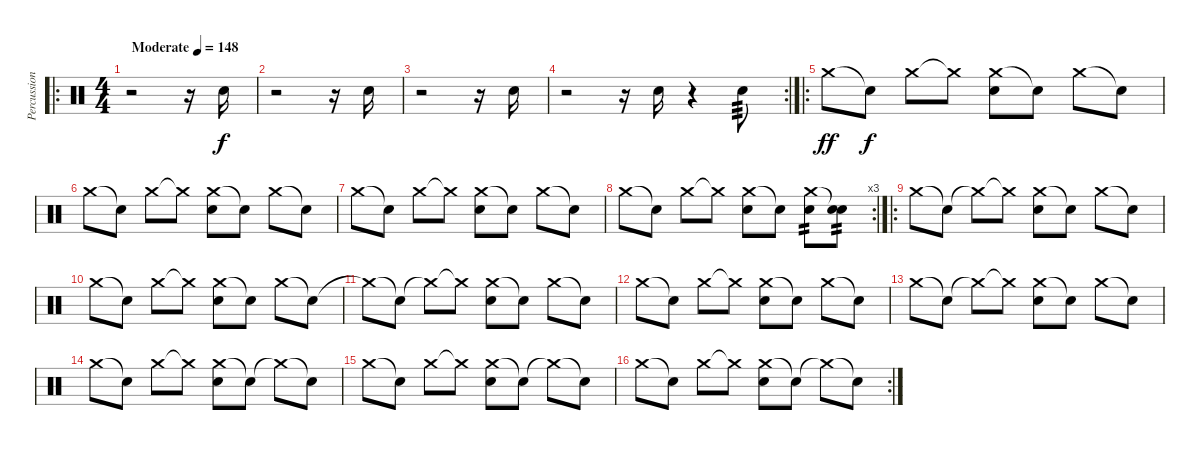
\track ("Percussion" "Percussion") {instrument percussion}
\staff {score}
\articulation defaults
\ro
\ts (4 4)
\tempo (148 "Moderate")
\clef neutral
\ks c
r.2{dy f} r.16 "Snare (hit) 2".16 |
r.2 r.16 "Snare (hit) 2".16 |
r.2 r.16 "Snare (hit) 2".16 |
\rc 2
r.2 r.16 "Snare (hit) 2".16 r.4 "Snare (hit) 2".8{tp 3} |
\ro "Crash medium (hit)".8{dy ff} "Snare (hit)"{t}.8{dy f} "Crash medium (hit)".8 "Crash medium (hit)"{t}.8
("Crash medium (hit)" "Snare (hit) 2").8 "Snare (hit)"{t}.8 "Crash medium (hit)".8 "Snare (hit)"{t}.8 |
"Crash medium (hit)".8 "Snare (hit)"{t}.8 "Crash medium (hit)".8 "Crash medium (hit)"{t}.8 ("Crash medium (hit)" "Snare (hit) 2").8 "Snare (hit)"{t}.8 "Crash medium (hit)".8 "Snare (hit)"{t}.8 |
"Crash medium (hit)".8 "Snare (hit)"{t}.8 "Crash medium (hit)".8 "Crash medium (hit)"{t}.8 ("Crash medium (hit)" "Snare (hit) 2").8 "Snare (hit)"{t}.8 "Crash medium (hit)".8 "Snare (hit)"{t}.8 |
\rc 3 "Crash medium (hit)".8 "Snare (hit)"{t}.8 "Crash medium (hit)".8 "Crash medium (hit)"{t}.8
("Crash medium (hit)" "Snare (hit) 2").8 "Snare (hit)"{t}.8 ("Crash medium (hit)" "Snare (hit) 2").8{tp 2} ("Snare (hit)"{t} "Snare (hit) 2").8{tp 2} |
\ro "Crash medium (hit)".8 "Snare (hit)"{t}.8 "Crash medium (hit)"{t}.8 "Crash medium (hit)"{t}.8
("Crash medium (hit)" "Snare (hit) 2").8 "Snare (hit)"{t}.8 "Crash medium (hit)".8 "Snare (hit)"{t}.8 |
"Crash medium (hit)".8 "Snare (hit)"{t}.8 "Crash medium (hit)".8 "Crash medium (hit)"{t}.8 ("Crash medium (hit)" "Snare (hit) 2").8 "Snare (hit)"{t}.8 "Crash medium (hit)".8 "Snare (hit)"{t}.8 |
"Crash medium (hit)"{t}.8 "Snare (hit)"{t}.8 "Crash medium (hit)"{t}.8 "Crash medium (hit)"{t}.8 ("Crash medium (hit)" "Snare (hit) 2").8 "Snare (hit)"{t}.8 "Crash medium (hit)".8 "Snare (hit)"{t}.8 |
"Crash medium (hit)".8 "Snare (hit)"{t}.8 "Crash medium (hit)".8 "Crash medium (hit)"{t}.8 ("Crash medium (hit)" "Snare (hit) 2").8 "Snare (hit)"{t}.8 "Crash medium (hit)".8 "Snare (hit)"{t}.8 |
"Crash medium (hit)".8 "Snare (hit)"{t}.8 "Crash medium (hit)"{t}.8 "Crash medium (hit)"{t}.8 ("Crash medium (hit)" "Snare (hit) 2").8 "Snare (hit)"{t}.8 "Crash medium (hit)".8 "Snare (hit)"{t}.8 |
"Crash medium (hit)".8 "Snare (hit)"{t}.8 "Crash medium (hit)".8 "Crash medium (hit)"{t}.8 ("Crash medium (hit)" "Snare (hit) 2").8 "Snare (hit)"{t}.8 "Crash medium (hit)"{t}.8 "Snare (hit)"{t}.8 |
"Crash medium (hit)".8 "Snare (hit)"{t}.8 "Crash medium (hit)".8 "Crash medium (hit)"{t}.8 ("Crash medium (hit)" "Snare (hit) 2").8 "Snare (hit)"{t}.8 "Crash medium (hit)"{t}.8 "Snare (hit)"{t}.8 |
\rc 2 "Crash medium (hit)".8 "Snare (hit)"{t}.8 "Crash medium (hit)".8 "Crash medium (hit)"{t}.8
("Crash medium (hit)" "Snare (hit) 2").8 "Snare (hit)"{t}.8 "Crash medium (hit)"{t}.8 "Snare (hit)"{t}.8
